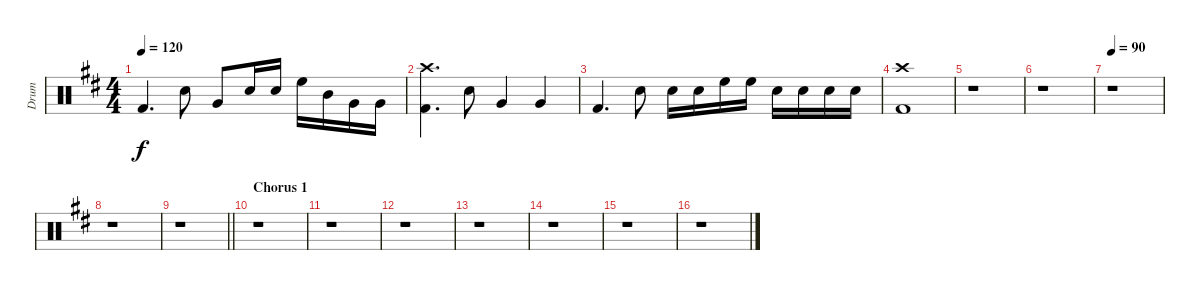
\track ("Drum" "Drum") {instrument percussion}
\staff {score}
\articulation defaults
\ts (4 4)
\tempo 120
\clef neutral
\ks d "Kick (hit) 2".4{d dy f} "Electric Snare (hit)".8 "Very Low Tom (hit)".8 "Electric Snare (hit)".16 "Electric Snare (hit)".16 "High Floor Tom (hit)".16 "Mid Tom (hit)".16 "Very Low Tom (hit)".16 "Very Low Tom (hit)".16
|
("Kick (hit) 2" "Crash high (hit)").4{d} "Electric Snare (hit)".8 "Very Low Tom (hit)".4 "Very Low Tom (hit)".4 |
"Kick (hit) 2".4{d} "Electric Snare (hit)".8 "Electric Snare (hit)".16 "Electric Snare (hit)".16 "High Floor Tom (hit)".16 "High Floor Tom (hit)".16 "Electric Snare (hit)".16 "Electric Snare (hit)".16 "Electric Snare (hit)".16 "Electric Snare (hit)".16 |
("Kick (hit) 2" "Crash high (hit)").1 |
r.1 |
r.1 |
\tempo 90
r.1 |
r.1 |
\barLineRight lightlight
r.1 |
\section ("" "Chorus 1")
r.1 |
r.1 |
r.1 |
r.1 |
r.1 |
r.1 |
r.1
